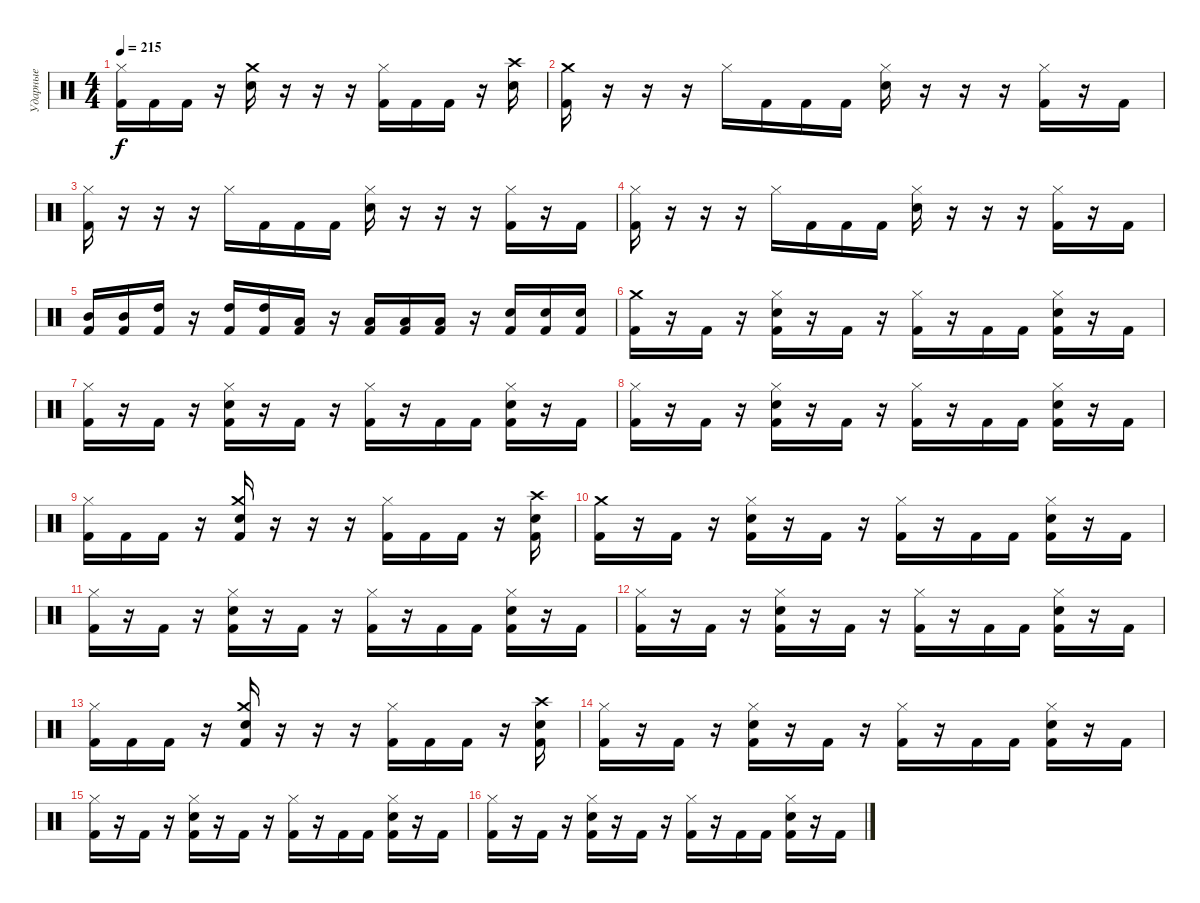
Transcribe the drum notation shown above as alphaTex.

\track ("Ударные" "Ударные") {instrument percussion}
\staff {score}
\articulation defaults
\ts (4 4)
\tempo 215
\clef neutral
\ks c
("Hi-Hat (closed)" "Kick (hit) 2").16{dy f} "Kick (hit) 2".16 "Kick (hit) 2".16 r.16 ("Crash medium (hit)" "Snare (hit) 2").16 r.16 r.16 r.16 ("Hi-Hat (closed)" "Kick (hit) 2").16 "Kick (hit) 2".16 "Kick (hit) 2".16 r.16 ("Crash high (hit)" "Snare (hit) 2").16 |
("Crash medium (hit)" "Kick (hit) 2").16 r.16 r.16 r.16 "Hi-Hat (closed)".16 "Kick (hit) 2".16 "Kick (hit) 2".16 "Kick (hit) 2".16 ("Hi-Hat (closed)" "Snare (hit) 2").16 r.16 r.16 r.16 ("Hi-Hat (closed)" "Kick (hit) 2").16 r.16 "Kick (hit) 2".16 |
("Hi-Hat (closed)" "Kick (hit) 2").16 r.16 r.16 r.16 "Hi-Hat (closed)".16 "Kick (hit) 2".16 "Kick (hit) 2".16 "Kick (hit) 2".16 ("Hi-Hat (closed)" "Snare (hit) 2").16 r.16 r.16 r.16 ("Hi-Hat (closed)" "Kick (hit) 2").16 r.16 "Kick (hit) 2".16 |
("Hi-Hat (closed)" "Kick (hit) 2").16 r.16 r.16 r.16 "Hi-Hat (closed)".16 "Kick (hit) 2".16 "Kick (hit) 2".16 "Kick (hit) 2".16 ("Hi-Hat (closed)" "Snare (hit) 2").16 r.16 r.16 r.16 ("Hi-Hat (closed)" "Kick (hit) 2").16 r.16 "Kick (hit) 2".16 |
("Mid Tom (hit)" "Kick (hit) 2").16 ("Mid Tom (hit)" "Kick (hit) 2").16 ("High Tom (hit)" "Kick (hit) 2").16 r.16 ("High Tom (hit)" "Kick (hit) 2").16 ("High Tom (hit)" "Kick (hit) 2").16 ("Low Tom (hit)" "Kick (hit) 2").16 r.16 ("Low Tom (hit)" "Kick (hit) 2").16 ("Low Tom (hit)" "Kick (hit) 2").16 ("Low Tom (hit)" "Kick (hit) 2").16 r.16 ("Snare (hit) 2" "Kick (hit) 2").16 ("Snare (hit) 2" "Kick (hit) 2").16 ("Snare (hit) 2" "Kick (hit) 2").16 |
("Crash medium (hit)" "Kick (hit) 2").16 r.16 "Kick (hit) 2".16 r.16 ("Hi-Hat (closed)" "Snare (hit) 2" "Kick (hit) 2").16 r.16 "Kick (hit) 2".16 r.16 ("Hi-Hat (closed)" "Kick (hit) 2").16 r.16 "Kick (hit) 2".16 "Kick (hit) 2".16 ("Hi-Hat (closed)" "Snare (hit) 2" "Kick (hit) 2").16 r.16 "Kick (hit) 2".16 |
("Hi-Hat (closed)" "Kick (hit) 2").16 r.16 "Kick (hit) 2".16 r.16 ("Hi-Hat (closed)" "Snare (hit) 2" "Kick (hit) 2").16 r.16 "Kick (hit) 2".16 r.16 ("Hi-Hat (closed)" "Kick (hit) 2").16 r.16 "Kick (hit) 2".16 "Kick (hit) 2".16 ("Hi-Hat (closed)" "Snare (hit) 2" "Kick (hit) 2").16 r.16 "Kick (hit) 2".16 |
("Hi-Hat (closed)" "Kick (hit) 2").16 r.16 "Kick (hit) 2".16 r.16 ("Hi-Hat (closed)" "Snare (hit) 2" "Kick (hit) 2").16 r.16 "Kick (hit) 2".16 r.16 ("Hi-Hat (closed)" "Kick (hit) 2").16 r.16 "Kick (hit) 2".16 "Kick (hit) 2".16 ("Hi-Hat (closed)" "Snare (hit) 2" "Kick (hit) 2").16 r.16 "Kick (hit) 2".16 |
("Hi-Hat (closed)" "Kick (hit) 2").16 "Kick (hit) 2".16 "Kick (hit) 2".16 r.16 ("Crash medium (hit)" "Snare (hit) 2" "Kick (hit) 2").16 r.16 r.16 r.16 ("Hi-Hat (closed)" "Kick (hit) 2").16 "Kick (hit) 2".16 "Kick (hit) 2".16 r.16 ("Crash high (hit)" "Snare (hit) 2" "Kick (hit) 2").16 |
("Crash medium (hit)" "Kick (hit) 2").16 r.16 "Kick (hit) 2".16 r.16 ("Hi-Hat (closed)" "Snare (hit) 2" "Kick (hit) 2").16 r.16 "Kick (hit) 2".16 r.16 ("Hi-Hat (closed)" "Kick (hit) 2").16 r.16 "Kick (hit) 2".16 "Kick (hit) 2".16 ("Hi-Hat (closed)" "Snare (hit) 2" "Kick (hit) 2").16 r.16 "Kick (hit) 2".16 |
("Hi-Hat (closed)" "Kick (hit) 2").16 r.16 "Kick (hit) 2".16 r.16 ("Hi-Hat (closed)" "Snare (hit) 2" "Kick (hit) 2").16 r.16 "Kick (hit) 2".16 r.16 ("Hi-Hat (closed)" "Kick (hit) 2").16 r.16 "Kick (hit) 2".16 "Kick (hit) 2".16 ("Hi-Hat (closed)" "Snare (hit) 2" "Kick (hit) 2").16 r.16 "Kick (hit) 2".16 |
("Hi-Hat (closed)" "Kick (hit) 2").16 r.16 "Kick (hit) 2".16 r.16 ("Hi-Hat (closed)" "Snare (hit) 2" "Kick (hit) 2").16 r.16 "Kick (hit) 2".16 r.16 ("Hi-Hat (closed)" "Kick (hit) 2").16 r.16 "Kick (hit) 2".16 "Kick (hit) 2".16 ("Hi-Hat (closed)" "Snare (hit) 2" "Kick (hit) 2").16 r.16 "Kick (hit) 2".16 |
("Hi-Hat (closed)" "Kick (hit) 2").16 "Kick (hit) 2".16 "Kick (hit) 2".16 r.16 ("Crash medium (hit)" "Snare (hit) 2" "Kick (hit) 2").16 r.16 r.16 r.16 ("Hi-Hat (closed)" "Kick (hit) 2").16 "Kick (hit) 2".16 "Kick (hit) 2".16 r.16 ("Crash high (hit)" "Snare (hit) 2" "Kick (hit) 2").16 |
("Hi-Hat (closed)" "Kick (hit) 2").16 r.16 "Kick (hit) 2".16 r.16 ("Hi-Hat (closed)" "Snare (hit) 2" "Kick (hit) 2").16 r.16 "Kick (hit) 2".16 r.16 ("Hi-Hat (closed)" "Kick (hit) 2").16 r.16 "Kick (hit) 2".16 "Kick (hit) 2".16 ("Hi-Hat (closed)" "Snare (hit) 2" "Kick (hit) 2").16 r.16 "Kick (hit) 2".16 |
("Hi-Hat (closed)" "Kick (hit) 2").16 r.16 "Kick (hit) 2".16 r.16 ("Hi-Hat (closed)" "Snare (hit) 2" "Kick (hit) 2").16 r.16 "Kick (hit) 2".16 r.16 ("Hi-Hat (closed)" "Kick (hit) 2").16 r.16 "Kick (hit) 2".16 "Kick (hit) 2".16 ("Hi-Hat (closed)" "Snare (hit) 2" "Kick (hit) 2").16 r.16 "Kick (hit) 2".16 |
("Hi-Hat (closed)" "Kick (hit) 2").16 r.16 "Kick (hit) 2".16 r.16 ("Hi-Hat (closed)" "Snare (hit) 2" "Kick (hit) 2").16 r.16 "Kick (hit) 2".16 r.16 ("Hi-Hat (closed)" "Kick (hit) 2").16 r.16 "Kick (hit) 2".16 "Kick (hit) 2".16 ("Hi-Hat (closed)" "Snare (hit) 2" "Kick (hit) 2").16 r.16 "Kick (hit) 2".16
